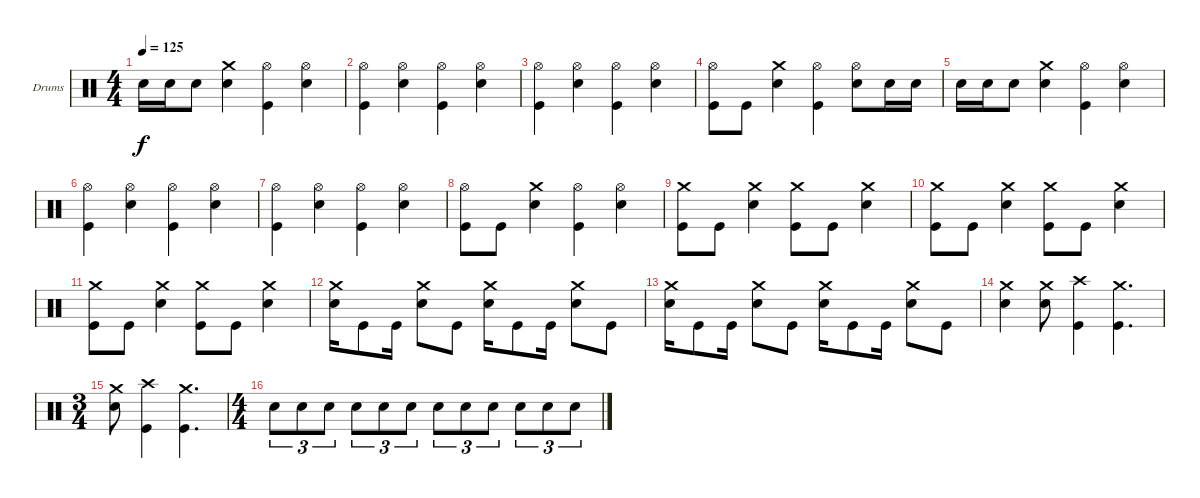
\bracketExtendMode groupsimilarinstruments
\firstSystemTrackNameOrientation horizontal
\otherSystemsTrackNameOrientation horizontal
\track ("Drumkit" "Drums") {instrument percussion}
\staff {score}
\articulation defaults
\ts (4 4)
\tempo 125
\clef neutral
\ks c "Snare (hit) 2".16{dy f} "Snare (hit) 2".16 "Snare (hit) 2".8
("Snare (hit) 2" "Crash medium (hit)").4 ("Kick (hit)" "Hi-Hat (open)").4 ("Snare (hit) 2" "Hi-Hat (open)").4 |
("Kick (hit)" "Hi-Hat (open)").4 ("Snare (hit) 2" "Hi-Hat (open)").4 ("Kick (hit)" "Hi-Hat (open)").4 ("Snare (hit) 2" "Hi-Hat (open)").4 |
("Kick (hit)" "Hi-Hat (open)").4 ("Snare (hit) 2" "Hi-Hat (open)").4 ("Kick (hit)" "Hi-Hat (open)").4 ("Snare (hit) 2" "Hi-Hat (open)").4 |
("Kick (hit)" "Hi-Hat (open)").8 "Kick (hit)".8 ("Snare (hit) 2" "Crash medium (hit)").4 ("Kick (hit)" "Hi-Hat (open)").4 ("Snare (hit) 2" "Hi-Hat (open)").8 "Snare (hit) 2".16 "Snare (hit) 2".16 |
"Snare (hit) 2".16 "Snare (hit) 2".16 "Snare (hit) 2".8 ("Snare (hit) 2" "Crash medium (hit)").4 ("Kick (hit)" "Hi-Hat (open)").4 ("Snare (hit) 2" "Hi-Hat (open)").4 |
("Kick (hit)" "Hi-Hat (open)").4 ("Snare (hit) 2" "Hi-Hat (open)").4 ("Kick (hit)" "Hi-Hat (open)").4 ("Snare (hit) 2" "Hi-Hat (open)").4 |
("Kick (hit)" "Hi-Hat (open)").4 ("Snare (hit) 2" "Hi-Hat (open)").4 ("Kick (hit)" "Hi-Hat (open)").4 ("Snare (hit) 2" "Hi-Hat (open)").4 |
("Kick (hit)" "Hi-Hat (open)").8 "Kick (hit)".8 ("Snare (hit) 2" "Crash medium (hit)").4 ("Kick (hit)" "Hi-Hat (open)").4 ("Snare (hit) 2" "Hi-Hat (open)").4 |
("Kick (hit)" "Crash medium (hit)").8 "Kick (hit)".8 ("Snare (hit) 2" "Crash medium (hit)").4 ("Kick (hit)" "Crash medium (hit)").8 "Kick (hit)".8 ("Snare (hit) 2" "Crash medium (hit)").4 |
("Kick (hit)" "Crash medium (hit)").8 "Kick (hit)".8 ("Snare (hit) 2" "Crash medium (hit)").4 ("Kick (hit)" "Crash medium (hit)").8 "Kick (hit)".8 ("Snare (hit) 2" "Crash medium (hit)").4 |
("Kick (hit)" "Crash medium (hit)").8 "Kick (hit)".8 ("Snare (hit) 2" "Crash medium (hit)").4 ("Kick (hit)" "Crash medium (hit)").8 "Kick (hit)".8 ("Snare (hit) 2" "Crash medium (hit)").4 |
("Snare (hit) 2" "Crash medium (hit)").16 "Kick (hit)".8 "Kick (hit)".16 ("Snare (hit) 2" "Crash medium (hit)").8 "Kick (hit)".8 ("Snare (hit) 2" "Crash medium (hit)").16 "Kick (hit)".8 "Kick (hit)".16 ("Snare (hit) 2" "Crash medium (hit)").8 "Kick (hit)".8 |
("Snare (hit) 2" "Crash medium (hit)").16 "Kick (hit)".8 "Kick (hit)".16 ("Snare (hit) 2" "Crash medium (hit)").8 "Kick (hit)".8 ("Snare (hit) 2" "Crash medium (hit)").16 "Kick (hit)".8 "Kick (hit)".16 ("Snare (hit) 2" "Crash medium (hit)").8 "Kick (hit)".8 |
("Snare (hit) 2" "Crash medium (hit)").4 ("Snare (hit) 2" "Crash medium (hit)").8 ("Kick (hit)" "Crash high (hit)").4 ("Kick (hit)" "Crash medium (hit)").4{d} |
\ts (3 4)
("Snare (hit) 2" "Crash medium (hit)").8 ("Kick (hit)" "Crash high (hit)").4 ("Kick (hit)" "Crash medium (hit)").4{d} |
\ts (4 4)
"Snare (hit) 2".8{tu (3 2)} "Snare (hit) 2".8{tu (3 2)} "Snare (hit) 2".8{tu (3 2)} "Snare (hit) 2".8{tu (3 2)} "Snare (hit) 2".8{tu (3 2)} "Snare (hit) 2".8{tu (3 2)} "Snare (hit) 2".8{tu (3 2)} "Snare (hit) 2".8{tu (3 2)} "Snare (hit) 2".8{tu (3 2)} "Snare (hit) 2".8{tu (3 2)} "Snare (hit) 2".8{tu (3 2)} "Snare (hit) 2".8{tu (3 2)}
